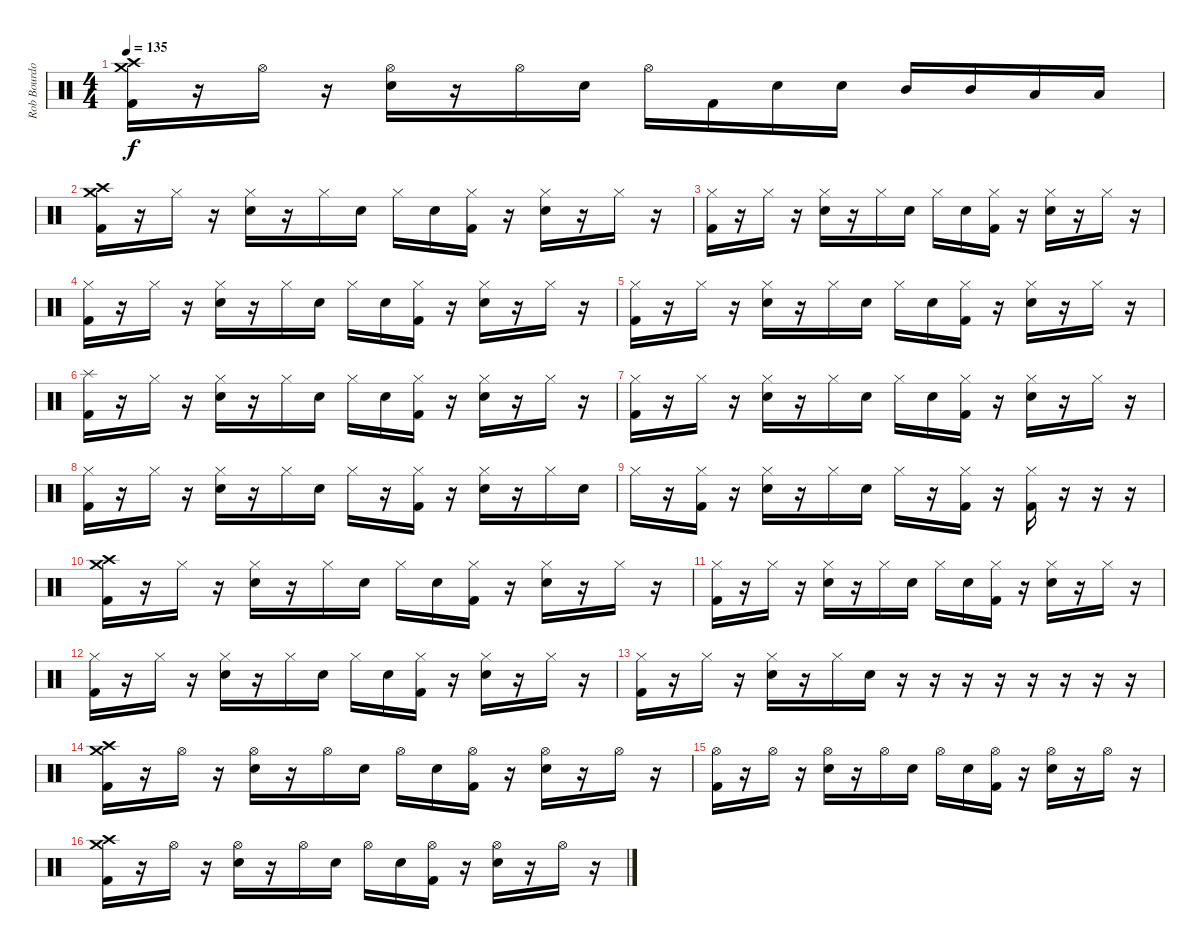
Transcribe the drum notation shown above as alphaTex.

\track ("Rob Bourdon (Drums)" "Rob Bourdo") {instrument percussion}
\staff {score}
\articulation defaults
\ts (4 4)
\tempo 135
\clef neutral
\ks c
("Crash high (hit)" "Crash medium (hit)" "Kick (hit) 2").16{dy f} r.16 "Hi-Hat (open)".16 r.16 ("Hi-Hat (open)" "Electric Snare (hit)").16 r.16 "Hi-Hat (open)".16 "Electric Snare (hit)".16 "Hi-Hat (open)".16 "Kick (hit) 2".16 "Electric Snare (hit)".16 "Electric Snare (hit)".16 "Mid Tom (hit)".16 "Mid Tom (hit)".16 "Low Tom (hit)".16 "Low Tom (hit)".16 |
("Crash high (hit)" "Crash medium (hit)" "Kick (hit) 2").16 r.16 "Hi-Hat (closed)".16 r.16 ("Hi-Hat (closed)" "Electric Snare (hit)").16 r.16 "Hi-Hat (closed)".16 "Electric Snare (hit)".16 "Hi-Hat (closed)".16 "Electric Snare (hit)".16 ("Hi-Hat (closed)" "Kick (hit) 2").16 r.16 ("Hi-Hat (closed)" "Electric Snare (hit)").16 r.16 "Hi-Hat (closed)".16 r.16 |
("Hi-Hat (closed)" "Kick (hit) 2").16 r.16 "Hi-Hat (closed)".16 r.16 ("Hi-Hat (closed)" "Electric Snare (hit)").16 r.16 "Hi-Hat (closed)".16 "Electric Snare (hit)".16 "Hi-Hat (closed)".16 "Electric Snare (hit)".16 ("Hi-Hat (closed)" "Kick (hit) 2").16 r.16 ("Hi-Hat (closed)" "Electric Snare (hit)").16 r.16 "Hi-Hat (closed)".16 r.16 |
("Hi-Hat (closed)" "Kick (hit) 2").16 r.16 "Hi-Hat (closed)".16 r.16 ("Hi-Hat (closed)" "Electric Snare (hit)").16 r.16 "Hi-Hat (closed)".16 "Electric Snare (hit)".16 "Hi-Hat (closed)".16 "Electric Snare (hit)".16 ("Hi-Hat (closed)" "Kick (hit) 2").16 r.16 ("Hi-Hat (closed)" "Electric Snare (hit)").16 r.16 "Hi-Hat (closed)".16 r.16 |
("Hi-Hat (closed)" "Kick (hit) 2").16 r.16 "Hi-Hat (closed)".16 r.16 ("Hi-Hat (closed)" "Electric Snare (hit)").16 r.16 "Hi-Hat (closed)".16 "Electric Snare (hit)".16 "Hi-Hat (closed)".16 "Electric Snare (hit)".16 ("Hi-Hat (closed)" "Kick (hit) 2").16 r.16 ("Hi-Hat (closed)" "Electric Snare (hit)").16 r.16 "Hi-Hat (closed)".16 r.16 |
("Splash (hit)" "Kick (hit) 2").16 r.16 "Hi-Hat (closed)".16 r.16 ("Hi-Hat (closed)" "Electric Snare (hit)").16 r.16 "Hi-Hat (closed)".16 "Electric Snare (hit)".16 "Hi-Hat (closed)".16 "Electric Snare (hit)".16 ("Hi-Hat (closed)" "Kick (hit) 2").16 r.16 ("Hi-Hat (closed)" "Electric Snare (hit)").16 r.16 "Hi-Hat (closed)".16 r.16 |
("Hi-Hat (closed)" "Kick (hit) 2").16 r.16 "Hi-Hat (closed)".16 r.16 ("Hi-Hat (closed)" "Electric Snare (hit)").16 r.16 "Hi-Hat (closed)".16 "Electric Snare (hit)".16 "Hi-Hat (closed)".16 "Electric Snare (hit)".16 ("Hi-Hat (closed)" "Kick (hit) 2").16 r.16 ("Hi-Hat (closed)" "Electric Snare (hit)").16 r.16 "Hi-Hat (closed)".16 r.16 |
("Hi-Hat (closed)" "Kick (hit) 2").16 r.16 "Hi-Hat (closed)".16 r.16 ("Hi-Hat (closed)" "Electric Snare (hit)").16 r.16 "Hi-Hat (closed)".16 "Electric Snare (hit)".16 "Hi-Hat (closed)".16 r.16 ("Hi-Hat (closed)" "Kick (hit) 2").16 r.16 ("Hi-Hat (closed)" "Electric Snare (hit)").16 r.16 "Hi-Hat (closed)".16 "Electric Snare (hit)".16 |
"Hi-Hat (closed)".16 r.16 ("Hi-Hat (closed)" "Kick (hit) 2").16 r.16 ("Hi-Hat (closed)" "Electric Snare (hit)").16 r.16 "Hi-Hat (closed)".16 "Electric Snare (hit)".16 "Hi-Hat (closed)".16 r.16 ("Hi-Hat (closed)" "Kick (hit) 2").16 r.16 ("Hi-Hat (closed)" "Kick (hit) 2").16 r.16 r.16 r.16 |
("Crash high (hit)" "Crash medium (hit)" "Kick (hit) 2").16 r.16 "Hi-Hat (closed)".16 r.16 ("Hi-Hat (closed)" "Electric Snare (hit)").16 r.16 "Hi-Hat (closed)".16 "Electric Snare (hit)".16 "Hi-Hat (closed)".16 "Electric Snare (hit)".16 ("Hi-Hat (closed)" "Kick (hit) 2").16 r.16 ("Hi-Hat (closed)" "Electric Snare (hit)").16 r.16 "Hi-Hat (closed)".16 r.16 |
("Hi-Hat (closed)" "Kick (hit) 2").16 r.16 "Hi-Hat (closed)".16 r.16 ("Hi-Hat (closed)" "Electric Snare (hit)").16 r.16 "Hi-Hat (closed)".16 "Electric Snare (hit)".16 "Hi-Hat (closed)".16 "Electric Snare (hit)".16 ("Hi-Hat (closed)" "Kick (hit) 2").16 r.16 ("Hi-Hat (closed)" "Electric Snare (hit)").16 r.16 "Hi-Hat (closed)".16 r.16 |
("Hi-Hat (closed)" "Kick (hit) 2").16 r.16 "Hi-Hat (closed)".16 r.16 ("Hi-Hat (closed)" "Electric Snare (hit)").16 r.16 "Hi-Hat (closed)".16 "Electric Snare (hit)".16 "Hi-Hat (closed)".16 "Electric Snare (hit)".16 ("Hi-Hat (closed)" "Kick (hit) 2").16 r.16 ("Hi-Hat (closed)" "Electric Snare (hit)").16 r.16 "Hi-Hat (closed)".16 r.16 |
("Hi-Hat (closed)" "Kick (hit) 2").16 r.16 "Hi-Hat (closed)".16 r.16 ("Hi-Hat (closed)" "Electric Snare (hit)").16 r.16 "Hi-Hat (closed)".16 "Electric Snare (hit)".16 r.16 r.16 r.16 r.16 r.16 r.16 r.16 r.16 |
("Crash high (hit)" "Crash medium (hit)" "Kick (hit) 2").16 r.16 "Hi-Hat (open)".16 r.16 ("Hi-Hat (open)" "Electric Snare (hit)").16 r.16 "Hi-Hat (open)".16 "Electric Snare (hit)".16 "Hi-Hat (open)".16 "Electric Snare (hit)".16 ("Hi-Hat (open)" "Kick (hit) 2").16 r.16 ("Hi-Hat (open)" "Electric Snare (hit)").16 r.16 "Hi-Hat (open)".16 r.16 |
("Hi-Hat (open)" "Kick (hit) 2").16 r.16 "Hi-Hat (open)".16 r.16 ("Hi-Hat (open)" "Electric Snare (hit)").16 r.16 "Hi-Hat (open)".16 "Electric Snare (hit)".16 "Hi-Hat (open)".16 "Electric Snare (hit)".16 ("Hi-Hat (open)" "Kick (hit) 2").16 r.16 ("Hi-Hat (open)" "Electric Snare (hit)").16 r.16 "Hi-Hat (open)".16 r.16 |
("Crash high (hit)" "Crash medium (hit)" "Kick (hit) 2").16 r.16 "Hi-Hat (open)".16 r.16 ("Hi-Hat (open)" "Electric Snare (hit)").16 r.16 "Hi-Hat (open)".16 "Electric Snare (hit)".16 "Hi-Hat (open)".16 "Electric Snare (hit)".16 ("Hi-Hat (open)" "Kick (hit) 2").16 r.16 ("Hi-Hat (open)" "Electric Snare (hit)").16 r.16 "Hi-Hat (open)".16 r.16
